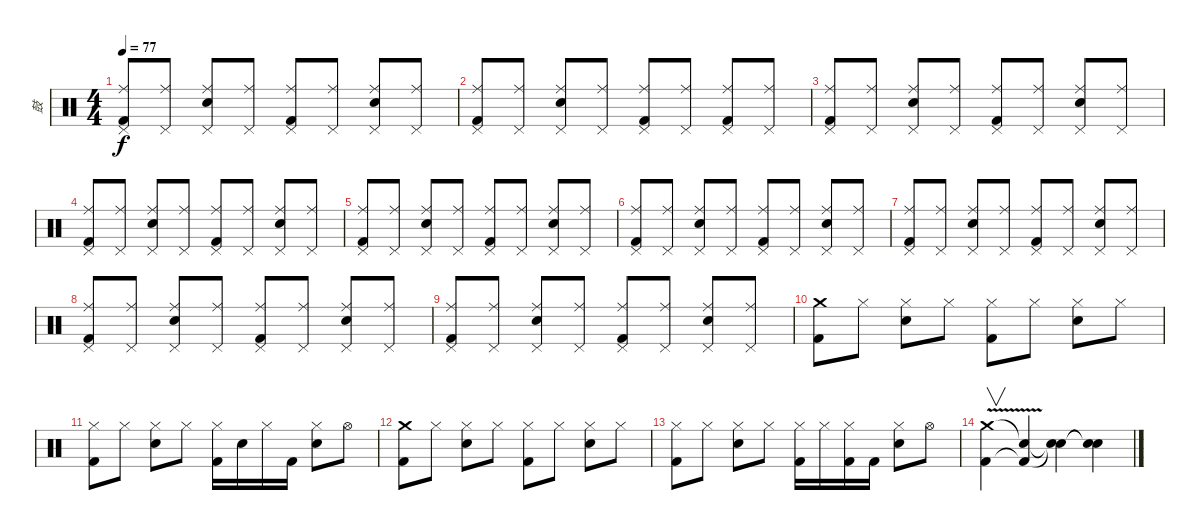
\track ("鼓" "鼓") {instrument percussion}
\staff {score}
\articulation defaults
\ts (4 4)
\tempo 77
\clef neutral
\ks c
("Ride (middle)" "Pedal Hi-Hat (hit)" "Kick (hit) 2").8{dy f} ("Ride (middle)" "Pedal Hi-Hat (hit)").8 ("Ride (middle)" "Pedal Hi-Hat (hit)" "Snare (hit) 2").8 ("Ride (middle)" "Pedal Hi-Hat (hit)").8 ("Ride (middle)" "Pedal Hi-Hat (hit)" "Kick (hit) 2").8 ("Ride (middle)" "Pedal Hi-Hat (hit)").8 ("Ride (middle)" "Pedal Hi-Hat (hit)" "Snare (hit) 2").8 ("Ride (middle)" "Pedal Hi-Hat (hit)").8 |
("Ride (middle)" "Pedal Hi-Hat (hit)" "Kick (hit) 2").8 ("Ride (middle)" "Pedal Hi-Hat (hit)").8 ("Ride (middle)" "Pedal Hi-Hat (hit)" "Snare (hit) 2").8 ("Ride (middle)" "Pedal Hi-Hat (hit)").8 ("Ride (middle)" "Pedal Hi-Hat (hit)" "Kick (hit) 2").8 ("Ride (middle)" "Pedal Hi-Hat (hit)").8 ("Ride (middle)" "Pedal Hi-Hat (hit)" "Kick (hit) 2").8 ("Ride (middle)" "Pedal Hi-Hat (hit)").8 |
("Ride (middle)" "Pedal Hi-Hat (hit)" "Kick (hit) 2").8 ("Ride (middle)" "Pedal Hi-Hat (hit)").8 ("Ride (middle)" "Pedal Hi-Hat (hit)" "Snare (hit) 2").8 ("Ride (middle)" "Pedal Hi-Hat (hit)").8 ("Ride (middle)" "Pedal Hi-Hat (hit)" "Kick (hit) 2").8 ("Ride (middle)" "Pedal Hi-Hat (hit)").8 ("Ride (middle)" "Pedal Hi-Hat (hit)" "Snare (hit) 2").8 ("Ride (middle)" "Pedal Hi-Hat (hit)").8 |
("Ride (middle)" "Pedal Hi-Hat (hit)" "Kick (hit) 2").8 ("Ride (middle)" "Pedal Hi-Hat (hit)").8 ("Ride (middle)" "Pedal Hi-Hat (hit)" "Snare (hit) 2").8 ("Ride (middle)" "Pedal Hi-Hat (hit)").8 ("Ride (middle)" "Pedal Hi-Hat (hit)" "Kick (hit) 2").8 ("Ride (middle)" "Pedal Hi-Hat (hit)").8 ("Ride (middle)" "Pedal Hi-Hat (hit)" "Snare (hit) 2").8 ("Ride (middle)" "Pedal Hi-Hat (hit)").8 |
("Ride (middle)" "Pedal Hi-Hat (hit)" "Kick (hit) 2").8 ("Ride (middle)" "Pedal Hi-Hat (hit)").8 ("Ride (middle)" "Pedal Hi-Hat (hit)" "Snare (hit) 2").8 ("Ride (middle)" "Pedal Hi-Hat (hit)").8 ("Ride (middle)" "Pedal Hi-Hat (hit)" "Kick (hit) 2").8 ("Ride (middle)" "Pedal Hi-Hat (hit)").8 ("Ride (middle)" "Pedal Hi-Hat (hit)" "Snare (hit) 2").8 ("Ride (middle)" "Pedal Hi-Hat (hit)").8 |
("Ride (middle)" "Pedal Hi-Hat (hit)" "Kick (hit) 2").8 ("Ride (middle)" "Pedal Hi-Hat (hit)").8 ("Ride (middle)" "Pedal Hi-Hat (hit)" "Snare (hit) 2").8 ("Ride (middle)" "Pedal Hi-Hat (hit)").8 ("Ride (middle)" "Pedal Hi-Hat (hit)" "Kick (hit) 2").8 ("Ride (middle)" "Pedal Hi-Hat (hit)").8 ("Ride (middle)" "Pedal Hi-Hat (hit)" "Snare (hit) 2").8 ("Ride (middle)" "Pedal Hi-Hat (hit)").8 |
("Ride (middle)" "Pedal Hi-Hat (hit)" "Kick (hit) 2").8 ("Ride (middle)" "Pedal Hi-Hat (hit)").8 ("Ride (middle)" "Pedal Hi-Hat (hit)" "Snare (hit) 2").8 ("Ride (middle)" "Pedal Hi-Hat (hit)").8 ("Ride (middle)" "Pedal Hi-Hat (hit)" "Kick (hit) 2").8 ("Ride (middle)" "Pedal Hi-Hat (hit)").8 ("Ride (middle)" "Pedal Hi-Hat (hit)" "Snare (hit) 2").8 ("Ride (middle)" "Pedal Hi-Hat (hit)").8 |
("Ride (middle)" "Pedal Hi-Hat (hit)" "Kick (hit) 2").8 ("Ride (middle)" "Pedal Hi-Hat (hit)").8 ("Ride (middle)" "Pedal Hi-Hat (hit)" "Snare (hit) 2").8 ("Ride (middle)" "Pedal Hi-Hat (hit)").8 ("Ride (middle)" "Pedal Hi-Hat (hit)" "Kick (hit) 2").8 ("Ride (middle)" "Pedal Hi-Hat (hit)").8 ("Ride (middle)" "Pedal Hi-Hat (hit)" "Snare (hit) 2").8 ("Ride (middle)" "Pedal Hi-Hat (hit)").8 |
("Ride (middle)" "Pedal Hi-Hat (hit)" "Kick (hit) 2").8 ("Ride (middle)" "Pedal Hi-Hat (hit)").8 ("Ride (middle)" "Pedal Hi-Hat (hit)" "Snare (hit) 2").8 ("Ride (middle)" "Pedal Hi-Hat (hit)").8 ("Ride (middle)" "Pedal Hi-Hat (hit)" "Kick (hit) 2").8 ("Ride (middle)" "Pedal Hi-Hat (hit)").8 ("Ride (middle)" "Pedal Hi-Hat (hit)" "Snare (hit) 2").8 ("Ride (middle)" "Pedal Hi-Hat (hit)").8 |
("Crash medium (hit)" "Kick (hit) 2").8 "Hi-Hat (closed)".8 ("Hi-Hat (closed)" "Snare (hit) 2").8 "Hi-Hat (closed)".8 ("Hi-Hat (closed)" "Kick (hit) 2").8 "Hi-Hat (closed)".8 ("Hi-Hat (closed)" "Snare (hit) 2").8 "Hi-Hat (closed)".8 |
("Hi-Hat (closed)" "Kick (hit) 2").8 "Hi-Hat (closed)".8 ("Hi-Hat (closed)" "Snare (hit) 2").8 "Hi-Hat (closed)".8 ("Hi-Hat (closed)" "Kick (hit) 2").16 "Snare (hit) 2".16 "Hi-Hat (closed)".16 "Kick (hit) 2".16 ("Hi-Hat (closed)" "Snare (hit) 2").8 "Hi-Hat (open)".8 |
("Crash medium (hit)" "Kick (hit) 2").8 "Hi-Hat (closed)".8 ("Hi-Hat (closed)" "Snare (hit) 2").8 "Hi-Hat (closed)".8 ("Hi-Hat (closed)" "Kick (hit) 2").8 "Hi-Hat (closed)".8 ("Hi-Hat (closed)" "Snare (hit) 2").8 "Hi-Hat (closed)".8 |
("Hi-Hat (closed)" "Kick (hit) 2").8 "Hi-Hat (closed)".8 ("Hi-Hat (closed)" "Snare (hit) 2").8 "Hi-Hat (closed)".8 ("Hi-Hat (closed)" "Kick (hit) 2").16 "Hi-Hat (closed)".16 ("Hi-Hat (closed)" "Kick (hit) 2").16 "Kick (hit) 2".16 ("Hi-Hat (closed)" "Snare (hit) 2").8 "Hi-Hat (open)".8 |
("Crash medium (hit)"{v} "Kick (hit) 2").4{v} ("Snare (hit)"{t} "Kick (hit) 2"{t}).4 ("Snare (hit)"{t} "Snare (hit)"{t}).4 ("Snare (hit)"{t} "Snare (hit)"{t}).4
